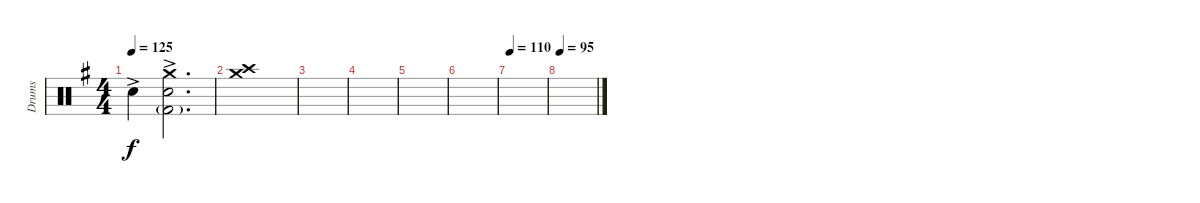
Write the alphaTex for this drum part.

\defaultSystemsLayout 4
\bracketExtendMode groupsimilarinstruments
\otherSystemsTrackNameOrientation horizontal
\track ("Drumkit" "Drums") {instrument percussion}
\staff {score}
\articulation defaults
\ts (4 4)
\tempo 125
\clef neutral
\scale
0.333333
\ks g "Snare (hit) 2"{ac acc forcenatural}.4{dy f beam Down}
("Snare (hit) 2"{acc forcenatural} "Kick (hit) 2"{g acc forcenatural} "Crash medium (hit)"{ac acc forcenatural}).2{d beam Down} |
("Crash high (hit)"{acc forcenatural} "Crash medium (hit)"{acc forcenatural}).1{beam Down} |
|
|
|
|
\tempo 110
|
\tempo 95
